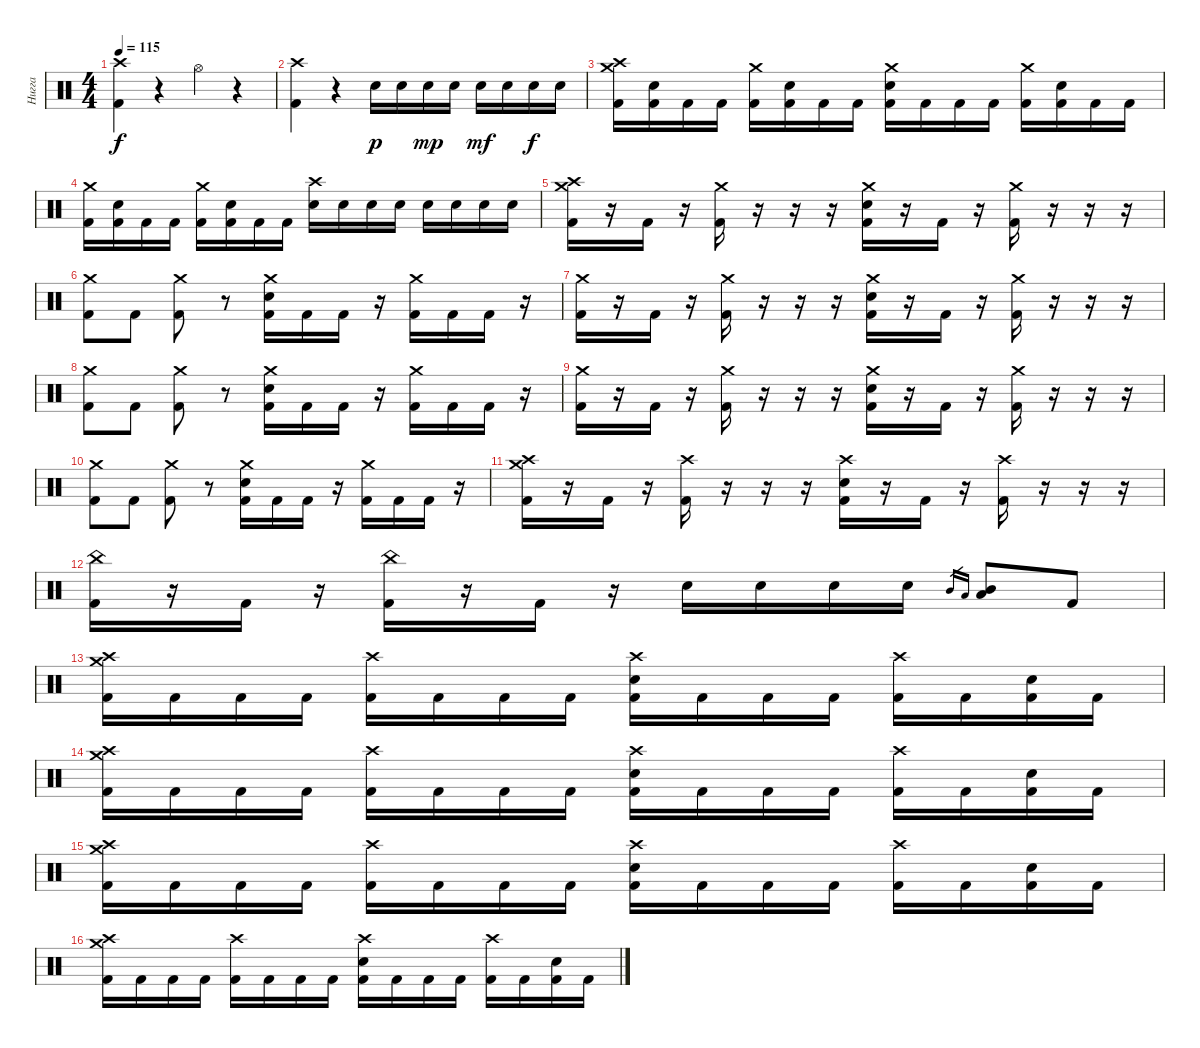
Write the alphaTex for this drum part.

\track ("Нигга" "Нигга") {instrument percussion}
\staff
\articulation defaults
\ts (4 4)
\tempo 115
\clef neutral
\ks c
("Crash high (hit)" "Kick (hit) 2").4{dy f} r.4 "Hi-Hat (open)".4 r.4 |
("Crash high (hit)" "Kick (hit) 2").4 r.4 "Electric Snare (hit)".16{dy p} "Electric Snare (hit)".16 "Electric Snare (hit)".16{dy mp} "Electric Snare (hit)".16 "Electric Snare (hit)".16{dy mf} "Electric Snare (hit)".16 "Electric Snare (hit)".16{dy f} "Electric Snare (hit)".16 |
("Crash medium (hit)" "Crash high (hit)" "Kick (hit) 2").16 ("Electric Snare (hit)" "Kick (hit) 2").16 "Kick (hit) 2".16 "Kick (hit) 2".16 ("Crash medium (hit)" "Kick (hit) 2").16 ("Electric Snare (hit)" "Kick (hit) 2").16 "Kick (hit) 2".16 "Kick (hit) 2".16 ("Crash medium (hit)" "Electric Snare (hit)" "Kick (hit) 2").16 "Kick (hit) 2".16 "Kick (hit) 2".16 "Kick (hit) 2".16 ("Crash medium (hit)" "Kick (hit) 2").16 ("Electric Snare (hit)" "Kick (hit) 2").16 "Kick (hit) 2".16 "Kick (hit) 2".16 |
("Crash medium (hit)" "Kick (hit) 2").16 ("Electric Snare (hit)" "Kick (hit) 2").16 "Kick (hit) 2".16 "Kick (hit) 2".16 ("Crash medium (hit)" "Kick (hit) 2").16 ("Electric Snare (hit)" "Kick (hit) 2").16 "Kick (hit) 2".16 "Kick (hit) 2".16 ("Crash high (hit)" "Electric Snare (hit)").16 "Electric Snare (hit)".16 "Electric Snare (hit)".16 "Electric Snare (hit)".16 "Electric Snare (hit)".16 "Electric Snare (hit)".16 "Electric Snare (hit)".16 "Electric Snare (hit)".16 |
("Crash medium (hit)" "Crash high (hit)" "Kick (hit) 2").16 r.16 "Kick (hit) 2".16 r.16 ("Crash medium (hit)" "Kick (hit) 2").16 r.16 r.16 r.16 ("Crash medium (hit)" "Electric Snare (hit)" "Kick (hit) 2").16 r.16 "Kick (hit) 2".16 r.16 ("Crash medium (hit)" "Kick (hit) 2").16 r.16 r.16 r.16 |
("Crash medium (hit)" "Kick (hit) 2").8 "Kick (hit) 2".8 ("Crash medium (hit)" "Kick (hit) 2").8 r.8 ("Crash medium (hit)" "Electric Snare (hit)" "Kick (hit) 2").16 "Kick (hit) 2".16 "Kick (hit) 2".16 r.16 ("Crash medium (hit)" "Kick (hit) 2").16 "Kick (hit) 2".16 "Kick (hit) 2".16 r.16 |
("Crash medium (hit)" "Kick (hit) 2").16 r.16 "Kick (hit) 2".16 r.16 ("Crash medium (hit)" "Kick (hit) 2").16 r.16 r.16 r.16 ("Crash medium (hit)" "Electric Snare (hit)" "Kick (hit) 2").16 r.16 "Kick (hit) 2".16 r.16 ("Crash medium (hit)" "Kick (hit) 2").16 r.16 r.16 r.16 |
("Crash medium (hit)" "Kick (hit) 2").8 "Kick (hit) 2".8 ("Crash medium (hit)" "Kick (hit) 2").8 r.8 ("Crash medium (hit)" "Electric Snare (hit)" "Kick (hit) 2").16 "Kick (hit) 2".16 "Kick (hit) 2".16 r.16 ("Crash medium (hit)" "Kick (hit) 2").16 "Kick (hit) 2".16 "Kick (hit) 2".16 r.16 |
("Crash medium (hit)" "Kick (hit) 2").16 r.16 "Kick (hit) 2".16 r.16 ("Crash medium (hit)" "Kick (hit) 2").16 r.16 r.16 r.16 ("Crash medium (hit)" "Electric Snare (hit)" "Kick (hit) 2").16 r.16 "Kick (hit) 2".16 r.16 ("Crash medium (hit)" "Kick (hit) 2").16 r.16 r.16 r.16 |
("Crash medium (hit)" "Kick (hit) 2").8 "Kick (hit) 2".8 ("Crash medium (hit)" "Kick (hit) 2").8 r.8 ("Crash medium (hit)" "Electric Snare (hit)" "Kick (hit) 2").16 "Kick (hit) 2".16 "Kick (hit) 2".16 r.16 ("Crash medium (hit)" "Kick (hit) 2").16 "Kick (hit) 2".16 "Kick (hit) 2".16 r.16 |
("Crash medium (hit)" "Crash high (hit)" "Kick (hit) 2").16 r.16 "Kick (hit) 2".16 r.16 ("Crash high (hit)" "Kick (hit) 2").16 r.16 r.16 r.16 ("Crash high (hit)" "Electric Snare (hit)" "Kick (hit) 2").16 r.16 "Kick (hit) 2".16 r.16 ("Crash high (hit)" "Kick (hit) 2").16 r.16 r.16 r.16 |
("China (hit)" "Kick (hit) 2").16 r.16 "Kick (hit) 2".16 r.16 ("China (hit)" "Kick (hit) 2").16 r.16 "Kick (hit) 2".16 r.16 "Electric Snare (hit)".16 "Electric Snare (hit)".16 "Electric Snare (hit)".16 "Electric Snare (hit)".16 "Mid Tom (hit)".16{gr} "Low Tom (hit)".16{gr} ("Mid Tom (hit)" "Low Tom (hit)").8 "Kick (hit) 2".8 |
("Crash high (hit)" "Crash medium (hit)" "Kick (hit) 2").16 "Kick (hit) 2".16 "Kick (hit) 2".16 "Kick (hit) 2".16 ("Crash high (hit)" "Kick (hit) 2").16 "Kick (hit) 2".16 "Kick (hit) 2".16 "Kick (hit) 2".16 ("Crash high (hit)" "Electric Snare (hit)" "Kick (hit) 2").16 "Kick (hit) 2".16 "Kick (hit) 2".16 "Kick (hit) 2".16 ("Crash high (hit)" "Kick (hit) 2").16 "Kick (hit) 2".16 ("Electric Snare (hit)" "Kick (hit) 2").16 "Kick (hit) 2".16 |
("Crash high (hit)" "Crash medium (hit)" "Kick (hit) 2").16 "Kick (hit) 2".16 "Kick (hit) 2".16 "Kick (hit) 2".16 ("Crash high (hit)" "Kick (hit) 2").16 "Kick (hit) 2".16 "Kick (hit) 2".16 "Kick (hit) 2".16 ("Crash high (hit)" "Electric Snare (hit)" "Kick (hit) 2").16 "Kick (hit) 2".16 "Kick (hit) 2".16 "Kick (hit) 2".16 ("Crash high (hit)" "Kick (hit) 2").16 "Kick (hit) 2".16 ("Electric Snare (hit)" "Kick (hit) 2").16 "Kick (hit) 2".16 |
("Crash high (hit)" "Crash medium (hit)" "Kick (hit) 2").16 "Kick (hit) 2".16 "Kick (hit) 2".16 "Kick (hit) 2".16 ("Crash high (hit)" "Kick (hit) 2").16 "Kick (hit) 2".16 "Kick (hit) 2".16 "Kick (hit) 2".16 ("Crash high (hit)" "Electric Snare (hit)" "Kick (hit) 2").16 "Kick (hit) 2".16 "Kick (hit) 2".16 "Kick (hit) 2".16 ("Crash high (hit)" "Kick (hit) 2").16 "Kick (hit) 2".16 ("Electric Snare (hit)" "Kick (hit) 2").16 "Kick (hit) 2".16 |
("Crash high (hit)" "Crash medium (hit)" "Kick (hit) 2").16 "Kick (hit) 2".16 "Kick (hit) 2".16 "Kick (hit) 2".16 ("Crash high (hit)" "Kick (hit) 2").16 "Kick (hit) 2".16 "Kick (hit) 2".16 "Kick (hit) 2".16 ("Crash high (hit)" "Electric Snare (hit)" "Kick (hit) 2").16 "Kick (hit) 2".16 "Kick (hit) 2".16 "Kick (hit) 2".16 ("Crash high (hit)" "Kick (hit) 2").16 "Kick (hit) 2".16 ("Electric Snare (hit)" "Kick (hit) 2").16 "Kick (hit) 2".16
